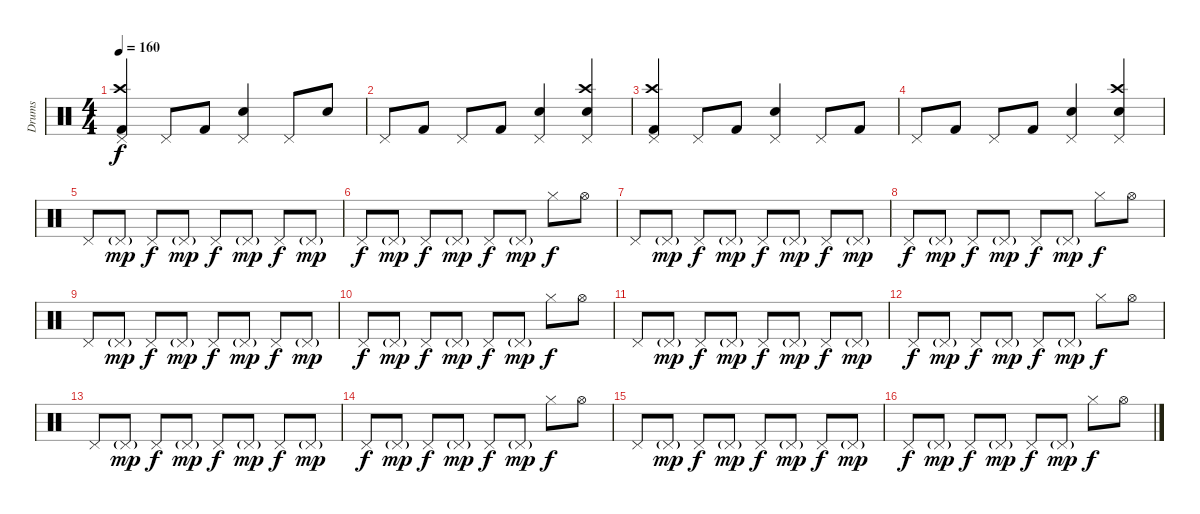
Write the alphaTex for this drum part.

\track ("Drums" "Drums") {instrument percussion}
\staff {score}
\articulation defaults
\ts (4 4)
\tempo 160
\clef neutral
\ks c
("Pedal Hi-Hat (hit)" "Crash high (hit)" "Kick (hit) 2").4{dy f} "Pedal Hi-Hat (hit)".8 "Kick (hit) 2".8 ("Pedal Hi-Hat (hit)" "Snare (hit) 2").4 "Pedal Hi-Hat (hit)".8 "Snare (hit) 2".8 |
"Pedal Hi-Hat (hit)".8 "Kick (hit) 2".8 "Pedal Hi-Hat (hit)".8 "Kick (hit) 2".8 ("Pedal Hi-Hat (hit)" "Snare (hit) 2").4 ("Pedal Hi-Hat (hit)" "Crash high (hit)" "Snare (hit) 2").4 |
("Pedal Hi-Hat (hit)" "Crash high (hit)" "Kick (hit) 2").4 "Pedal Hi-Hat (hit)".8 "Kick (hit) 2".8 ("Pedal Hi-Hat (hit)" "Snare (hit) 2").4 "Pedal Hi-Hat (hit)".8 "Kick (hit) 2".8 |
"Pedal Hi-Hat (hit)".8 "Kick (hit) 2".8 "Pedal Hi-Hat (hit)".8 "Kick (hit) 2".8 ("Pedal Hi-Hat (hit)" "Snare (hit) 2").4 ("Pedal Hi-Hat (hit)" "Crash high (hit)" "Snare (hit) 2").4 |
"Pedal Hi-Hat (hit)".8 "Pedal Hi-Hat (hit)"{g}.8{dy mp} "Pedal Hi-Hat (hit)".8{dy f} "Pedal Hi-Hat (hit)"{g}.8{dy mp} "Pedal Hi-Hat (hit)".8{dy f} "Pedal Hi-Hat (hit)"{g}.8{dy mp} "Pedal Hi-Hat (hit)".8{dy f} "Pedal Hi-Hat (hit)"{g}.8{dy mp} |
"Pedal Hi-Hat (hit)".8{dy f} "Pedal Hi-Hat (hit)"{g}.8{dy mp} "Pedal Hi-Hat (hit)".8{dy f} "Pedal Hi-Hat (hit)"{g}.8{dy mp} "Pedal Hi-Hat (hit)".8{dy f} "Pedal Hi-Hat (hit)"{g}.8{dy mp} "Hi-Hat (closed)".8{dy f} "Hi-Hat (open)".8 |
"Pedal Hi-Hat (hit)".8 "Pedal Hi-Hat (hit)"{g}.8{dy mp} "Pedal Hi-Hat (hit)".8{dy f} "Pedal Hi-Hat (hit)"{g}.8{dy mp} "Pedal Hi-Hat (hit)".8{dy f} "Pedal Hi-Hat (hit)"{g}.8{dy mp} "Pedal Hi-Hat (hit)".8{dy f} "Pedal Hi-Hat (hit)"{g}.8{dy mp} |
"Pedal Hi-Hat (hit)".8{dy f} "Pedal Hi-Hat (hit)"{g}.8{dy mp} "Pedal Hi-Hat (hit)".8{dy f} "Pedal Hi-Hat (hit)"{g}.8{dy mp} "Pedal Hi-Hat (hit)".8{dy f} "Pedal Hi-Hat (hit)"{g}.8{dy mp} "Hi-Hat (closed)".8{dy f} "Hi-Hat (open)".8 |
"Pedal Hi-Hat (hit)".8 "Pedal Hi-Hat (hit)"{g}.8{dy mp} "Pedal Hi-Hat (hit)".8{dy f} "Pedal Hi-Hat (hit)"{g}.8{dy mp} "Pedal Hi-Hat (hit)".8{dy f} "Pedal Hi-Hat (hit)"{g}.8{dy mp} "Pedal Hi-Hat (hit)".8{dy f} "Pedal Hi-Hat (hit)"{g}.8{dy mp} |
"Pedal Hi-Hat (hit)".8{dy f} "Pedal Hi-Hat (hit)"{g}.8{dy mp} "Pedal Hi-Hat (hit)".8{dy f} "Pedal Hi-Hat (hit)"{g}.8{dy mp} "Pedal Hi-Hat (hit)".8{dy f} "Pedal Hi-Hat (hit)"{g}.8{dy mp} "Hi-Hat (closed)".8{dy f} "Hi-Hat (open)".8 |
"Pedal Hi-Hat (hit)".8 "Pedal Hi-Hat (hit)"{g}.8{dy mp} "Pedal Hi-Hat (hit)".8{dy f} "Pedal Hi-Hat (hit)"{g}.8{dy mp} "Pedal Hi-Hat (hit)".8{dy f} "Pedal Hi-Hat (hit)"{g}.8{dy mp} "Pedal Hi-Hat (hit)".8{dy f} "Pedal Hi-Hat (hit)"{g}.8{dy mp} |
"Pedal Hi-Hat (hit)".8{dy f} "Pedal Hi-Hat (hit)"{g}.8{dy mp} "Pedal Hi-Hat (hit)".8{dy f} "Pedal Hi-Hat (hit)"{g}.8{dy mp} "Pedal Hi-Hat (hit)".8{dy f} "Pedal Hi-Hat (hit)"{g}.8{dy mp} "Hi-Hat (closed)".8{dy f} "Hi-Hat (open)".8 |
"Pedal Hi-Hat (hit)".8 "Pedal Hi-Hat (hit)"{g}.8{dy mp} "Pedal Hi-Hat (hit)".8{dy f} "Pedal Hi-Hat (hit)"{g}.8{dy mp} "Pedal Hi-Hat (hit)".8{dy f} "Pedal Hi-Hat (hit)"{g}.8{dy mp} "Pedal Hi-Hat (hit)".8{dy f} "Pedal Hi-Hat (hit)"{g}.8{dy mp} |
"Pedal Hi-Hat (hit)".8{dy f} "Pedal Hi-Hat (hit)"{g}.8{dy mp} "Pedal Hi-Hat (hit)".8{dy f} "Pedal Hi-Hat (hit)"{g}.8{dy mp} "Pedal Hi-Hat (hit)".8{dy f} "Pedal Hi-Hat (hit)"{g}.8{dy mp} "Hi-Hat (closed)".8{dy f} "Hi-Hat (open)".8 |
"Pedal Hi-Hat (hit)".8 "Pedal Hi-Hat (hit)"{g}.8{dy mp} "Pedal Hi-Hat (hit)".8{dy f} "Pedal Hi-Hat (hit)"{g}.8{dy mp} "Pedal Hi-Hat (hit)".8{dy f} "Pedal Hi-Hat (hit)"{g}.8{dy mp} "Pedal Hi-Hat (hit)".8{dy f} "Pedal Hi-Hat (hit)"{g}.8{dy mp} |
"Pedal Hi-Hat (hit)".8{dy f} "Pedal Hi-Hat (hit)"{g}.8{dy mp} "Pedal Hi-Hat (hit)".8{dy f} "Pedal Hi-Hat (hit)"{g}.8{dy mp} "Pedal Hi-Hat (hit)".8{dy f} "Pedal Hi-Hat (hit)"{g}.8{dy mp} "Hi-Hat (closed)".8{dy f} "Hi-Hat (open)".8
